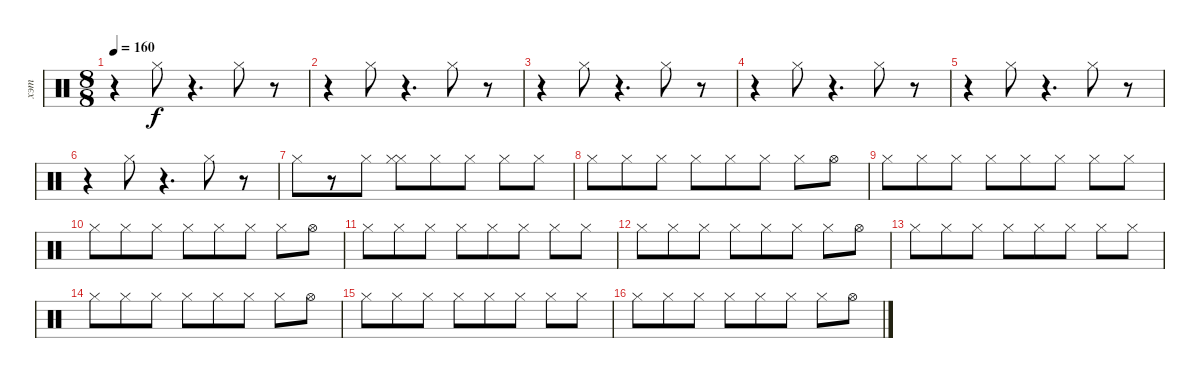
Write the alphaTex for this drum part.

\track ("хэт" "хэт") {instrument percussion}
\staff {score}
\articulation defaults
\ts (8 8)
\tempo 160
\clef neutral
\ks c
r.4{dy f} "Hi-Hat (closed)".8 r.4{d} "Hi-Hat (closed)".8 r.8 |
r.4 "Hi-Hat (closed)".8 r.4{d} "Hi-Hat (closed)".8 r.8 |
r.4 "Hi-Hat (closed)".8 r.4{d} "Hi-Hat (closed)".8 r.8 |
r.4 "Hi-Hat (closed)".8 r.4{d} "Hi-Hat (closed)".8 r.8 |
r.4 "Hi-Hat (closed)".8 r.4{d} "Hi-Hat (closed)".8 r.8 |
r.4 "Hi-Hat (closed)".8 r.4{d} "Hi-Hat (closed)".8 r.8 |
"Hi-Hat (closed)".8 r.8 "Hi-Hat (closed)".8 ("Hi-Hat (closed)" "Hi-Hat (closed)").8 "Hi-Hat (closed)".8 "Hi-Hat (closed)".8 "Hi-Hat (closed)".8 "Hi-Hat (closed)".8 |
"Hi-Hat (closed)".8 "Hi-Hat (closed)".8 "Hi-Hat (closed)".8 "Hi-Hat (closed)".8 "Hi-Hat (closed)".8 "Hi-Hat (closed)".8 "Hi-Hat (closed)".8 "Hi-Hat (open)".8 |
"Hi-Hat (closed)".8 "Hi-Hat (closed)".8 "Hi-Hat (closed)".8 "Hi-Hat (closed)".8 "Hi-Hat (closed)".8 "Hi-Hat (closed)".8 "Hi-Hat (closed)".8 "Hi-Hat (closed)".8 |
"Hi-Hat (closed)".8 "Hi-Hat (closed)".8 "Hi-Hat (closed)".8 "Hi-Hat (closed)".8 "Hi-Hat (closed)".8 "Hi-Hat (closed)".8 "Hi-Hat (closed)".8 "Hi-Hat (open)".8 |
"Hi-Hat (closed)".8 "Hi-Hat (closed)".8 "Hi-Hat (closed)".8 "Hi-Hat (closed)".8 "Hi-Hat (closed)".8 "Hi-Hat (closed)".8 "Hi-Hat (closed)".8 "Hi-Hat (closed)".8 |
"Hi-Hat (closed)".8 "Hi-Hat (closed)".8 "Hi-Hat (closed)".8 "Hi-Hat (closed)".8 "Hi-Hat (closed)".8 "Hi-Hat (closed)".8 "Hi-Hat (closed)".8 "Hi-Hat (open)".8 |
"Hi-Hat (closed)".8 "Hi-Hat (closed)".8 "Hi-Hat (closed)".8 "Hi-Hat (closed)".8 "Hi-Hat (closed)".8 "Hi-Hat (closed)".8 "Hi-Hat (closed)".8 "Hi-Hat (closed)".8 |
"Hi-Hat (closed)".8 "Hi-Hat (closed)".8 "Hi-Hat (closed)".8 "Hi-Hat (closed)".8 "Hi-Hat (closed)".8 "Hi-Hat (closed)".8 "Hi-Hat (closed)".8 "Hi-Hat (open)".8 |
"Hi-Hat (closed)".8 "Hi-Hat (closed)".8 "Hi-Hat (closed)".8 "Hi-Hat (closed)".8 "Hi-Hat (closed)".8 "Hi-Hat (closed)".8 "Hi-Hat (closed)".8 "Hi-Hat (closed)".8 |
"Hi-Hat (closed)".8 "Hi-Hat (closed)".8 "Hi-Hat (closed)".8 "Hi-Hat (closed)".8 "Hi-Hat (closed)".8 "Hi-Hat (closed)".8 "Hi-Hat (closed)".8 "Hi-Hat (open)".8
